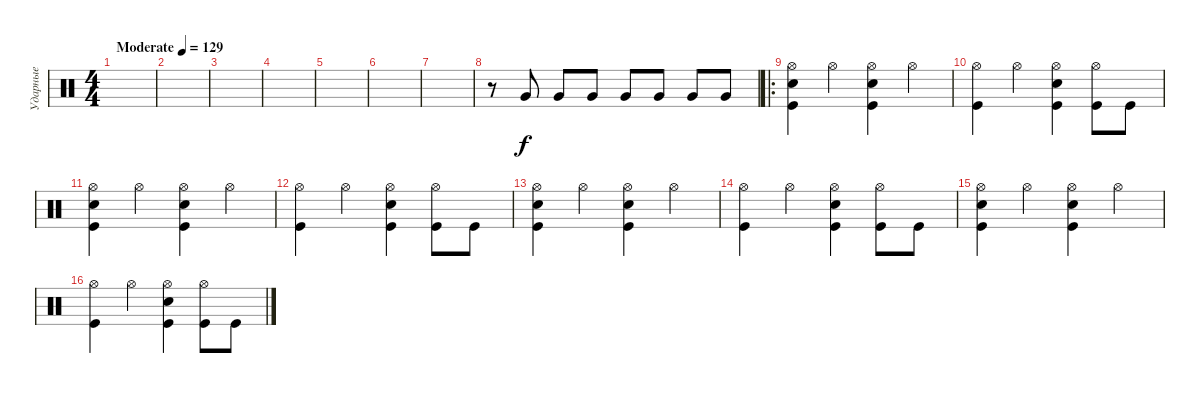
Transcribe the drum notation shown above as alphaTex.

\track ("Ударные" "Ударные") {instrument percussion}
\staff {score}
\articulation defaults
\ts (4 4)
\tempo (129 "Moderate")
\clef neutral
\ks c
|
|
|
|
|
|
|
r.8 "Very Low Tom (hit)".8 "Very Low Tom (hit)".8 "Very Low Tom (hit)".8 "Very Low Tom (hit)".8 "Very Low Tom (hit)".8 "Very Low Tom (hit)".8 "Very Low Tom (hit)".8 |
\ro
("Hi-Hat (open)" "Snare (hit) 2" "Kick (hit)").4 "Hi-Hat (open)".4 ("Kick (hit)" "Hi-Hat (open)" "Snare (hit) 2").4 "Hi-Hat (open)".4 |
("Hi-Hat (open)" "Kick (hit)").4 "Hi-Hat (open)".4 ("Kick (hit)" "Hi-Hat (open)" "Snare (hit) 2").4 ("Hi-Hat (open)" "Kick (hit)").8 "Kick (hit)".8 |
("Hi-Hat (open)" "Snare (hit) 2" "Kick (hit)").4 "Hi-Hat (open)".4 ("Kick (hit)" "Hi-Hat (open)" "Snare (hit) 2").4 "Hi-Hat (open)".4 |
("Hi-Hat (open)" "Kick (hit)").4 "Hi-Hat (open)".4 ("Kick (hit)" "Hi-Hat (open)" "Snare (hit) 2").4 ("Hi-Hat (open)" "Kick (hit)").8 "Kick (hit)".8 |
("Hi-Hat (open)" "Snare (hit) 2" "Kick (hit)").4 "Hi-Hat (open)".4 ("Kick (hit)" "Hi-Hat (open)" "Snare (hit) 2").4 "Hi-Hat (open)".4 |
("Hi-Hat (open)" "Kick (hit)").4 "Hi-Hat (open)".4 ("Kick (hit)" "Hi-Hat (open)" "Snare (hit) 2").4 ("Hi-Hat (open)" "Kick (hit)").8 "Kick (hit)".8 |
("Hi-Hat (open)" "Snare (hit) 2" "Kick (hit)").4 "Hi-Hat (open)".4 ("Kick (hit)" "Hi-Hat (open)" "Snare (hit) 2").4 "Hi-Hat (open)".4 |
("Hi-Hat (open)" "Kick (hit)").4 "Hi-Hat (open)".4 ("Kick (hit)" "Hi-Hat (open)" "Snare (hit) 2").4 ("Hi-Hat (open)" "Kick (hit)").8 "Kick (hit)".8
